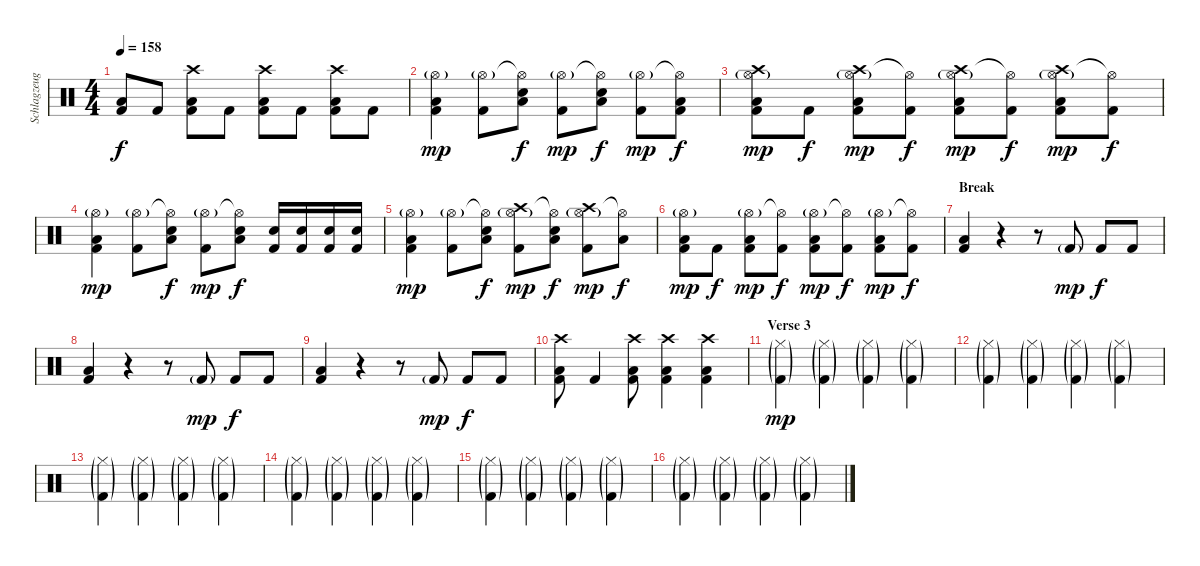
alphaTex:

\track ("Schlagzeug" "Schlagzeug") {instrument percussion}
\staff {score}
\articulation defaults
\ts (4 4)
\tempo 158
\clef neutral
\ks c
("Low Floor Tom (hit)" "Kick (hit) 2").8{dy f} "Kick (hit) 2".8 ("Crash high (hit)" "Low Floor Tom (hit)" "Kick (hit) 2").8 "Kick (hit) 2".8 ("Crash high (hit)" "Low Floor Tom (hit)" "Kick (hit) 2").8 "Kick (hit) 2".8 ("Crash high (hit)" "Low Floor Tom (hit)" "Kick (hit) 2").8 "Kick (hit) 2".8 |
("Hi-Hat (open)"{g} "Low Floor Tom (hit)" "Kick (hit) 2").4{dy mp} ("Hi-Hat (open)"{g} "Kick (hit) 2").8 ("Hi-Hat (open)"{t} "Low Floor Tom (hit)" "Electric Snare (hit)").8{dy f} ("Hi-Hat (open)"{g} "Kick (hit) 2").8{dy mp} ("Hi-Hat (open)"{t} "Low Floor Tom (hit)" "Electric Snare (hit)").8{dy f} ("Hi-Hat (open)"{g} "Kick (hit) 2").8{dy mp} ("Hi-Hat (open)"{t} "Low Floor Tom (hit)" "Kick (hit) 2").8{dy f} |
("Crash high (hit)" "Hi-Hat (open)"{g} "Low Floor Tom (hit)" "Kick (hit) 2").8{dy mp} "Kick (hit) 2".8{dy f} ("Crash high (hit)" "Hi-Hat (open)"{g} "Low Floor Tom (hit)" "Kick (hit) 2").8{dy mp} ("Hi-Hat (open)"{t} "Kick (hit) 2").8{dy f} ("Crash high (hit)" "Hi-Hat (open)"{g} "Low Floor Tom (hit)" "Kick (hit) 2").8{dy mp} ("Hi-Hat (open)"{t} "Kick (hit) 2").8{dy f} ("Crash high (hit)" "Hi-Hat (open)"{g} "Low Floor Tom (hit)" "Kick (hit) 2").8{dy mp} ("Hi-Hat (open)"{t} "Kick (hit) 2").8{dy f} |
("Hi-Hat (open)"{g} "Low Floor Tom (hit)" "Kick (hit) 2").4{dy mp} ("Hi-Hat (open)"{g} "Kick (hit) 2").8 ("Hi-Hat (open)"{t} "Low Floor Tom (hit)" "Electric Snare (hit)").8{dy f} ("Hi-Hat (open)"{g} "Kick (hit) 2").8{dy mp} ("Hi-Hat (open)"{t} "Low Floor Tom (hit)" "Electric Snare (hit)").8{dy f} ("Electric Snare (hit)" "Kick (hit) 2").16 ("Electric Snare (hit)" "Kick (hit) 2").16 ("Electric Snare (hit)" "Kick (hit) 2").16 ("Electric Snare (hit)" "Kick (hit) 2").16 |
("Hi-Hat (open)"{g} "Low Floor Tom (hit)" "Kick (hit) 2").4{dy mp} ("Hi-Hat (open)"{g} "Kick (hit) 2").8 ("Hi-Hat (open)"{t} "Low Floor Tom (hit)" "Electric Snare (hit)").8{dy f} ("Crash high (hit)" "Hi-Hat (open)"{g} "Kick (hit) 2").8{dy mp} ("Hi-Hat (open)"{t} "Low Floor Tom (hit)" "Electric Snare (hit)").8{dy f} ("Crash high (hit)" "Hi-Hat (open)"{g} "Kick (hit) 2").8{dy mp} ("Hi-Hat (open)"{t} "Low Floor Tom (hit)").8{dy f} |
("Hi-Hat (open)"{g} "Low Floor Tom (hit)" "Kick (hit) 2").8{dy mp} "Kick (hit) 2".8{dy f} ("Hi-Hat (open)"{g} "Low Floor Tom (hit)" "Kick (hit) 2").8{dy mp} ("Hi-Hat (open)"{t} "Kick (hit) 2").8{dy f} ("Hi-Hat (open)"{g} "Low Floor Tom (hit)" "Kick (hit) 2").8{dy mp} ("Hi-Hat (open)"{t} "Kick (hit) 2").8{dy f} ("Hi-Hat (open)"{g} "Low Floor Tom (hit)" "Kick (hit) 2").8{dy mp} ("Hi-Hat (open)"{t} "Kick (hit) 2").8{dy f} |
\section ("" "Break")
("Low Floor Tom (hit)" "Kick (hit) 2").4 r.4 r.8 "Kick (hit) 2"{g}.8{dy mp} "Kick (hit) 2".8{dy f} "Kick (hit) 2".8 |
("Low Floor Tom (hit)" "Kick (hit) 2").4 r.4 r.8 "Kick (hit) 2"{g}.8{dy mp} "Kick (hit) 2".8{dy f} "Kick (hit) 2".8 |
("Low Floor Tom (hit)" "Kick (hit) 2").4 r.4 r.8 "Kick (hit) 2"{g}.8{dy mp} "Kick (hit) 2".8{dy f} "Kick (hit) 2".8 |
("Crash high (hit)" "Low Floor Tom (hit)" "Kick (hit) 2").8 "Kick (hit) 2".4 ("Crash high (hit)" "Low Floor Tom (hit)" "Kick (hit) 2").8 ("Crash high (hit)" "Low Floor Tom (hit)" "Kick (hit) 2").4 ("Crash high (hit)" "Low Floor Tom (hit)" "Kick (hit) 2").4 |
\section ("" "Verse 3")
("Hi-Hat (closed)"{g} "Kick (hit) 2"{g}).4{dy mp} ("Hi-Hat (closed)"{g} "Kick (hit) 2"{g}).4 ("Hi-Hat (closed)"{g} "Kick (hit) 2"{g}).4 ("Hi-Hat (closed)"{g} "Kick (hit) 2"{g}).4 |
("Hi-Hat (closed)"{g} "Kick (hit) 2"{g}).4 ("Hi-Hat (closed)"{g} "Kick (hit) 2"{g}).4 ("Hi-Hat (closed)"{g} "Kick (hit) 2"{g}).4 ("Hi-Hat (closed)"{g} "Kick (hit) 2"{g}).4 |
("Hi-Hat (closed)"{g} "Kick (hit) 2"{g}).4 ("Hi-Hat (closed)"{g} "Kick (hit) 2"{g}).4 ("Hi-Hat (closed)"{g} "Kick (hit) 2"{g}).4 ("Hi-Hat (closed)"{g} "Kick (hit) 2"{g}).4 |
("Hi-Hat (closed)"{g} "Kick (hit) 2"{g}).4 ("Hi-Hat (closed)"{g} "Kick (hit) 2"{g}).4 ("Hi-Hat (closed)"{g} "Kick (hit) 2"{g}).4 ("Hi-Hat (closed)"{g} "Kick (hit) 2"{g}).4 |
("Hi-Hat (closed)"{g} "Kick (hit) 2"{g}).4 ("Hi-Hat (closed)"{g} "Kick (hit) 2"{g}).4 ("Hi-Hat (closed)"{g} "Kick (hit) 2"{g}).4 ("Hi-Hat (closed)"{g} "Kick (hit) 2"{g}).4 |
("Hi-Hat (closed)"{g} "Kick (hit) 2"{g}).4 ("Hi-Hat (closed)"{g} "Kick (hit) 2"{g}).4 ("Hi-Hat (closed)"{g} "Kick (hit) 2"{g}).4 ("Hi-Hat (closed)"{g} "Kick (hit) 2"{g}).4
